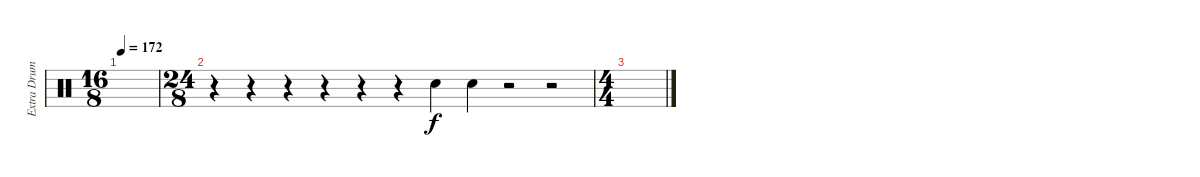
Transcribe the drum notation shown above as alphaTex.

\track ("Extra Drums" "Extra Drum") {instrument percussion}
\staff {score}
\articulation defaults
\ts (16 8)
\tempo 172
\clef neutral
\ks c
|
\ts (24 8)
r.4 r.4 r.4 r.4 r.4 r.4 "Snare (hit) 2".4 "Electric Snare (hit)".4 r.2 r.2 |
\ts (4 4)
